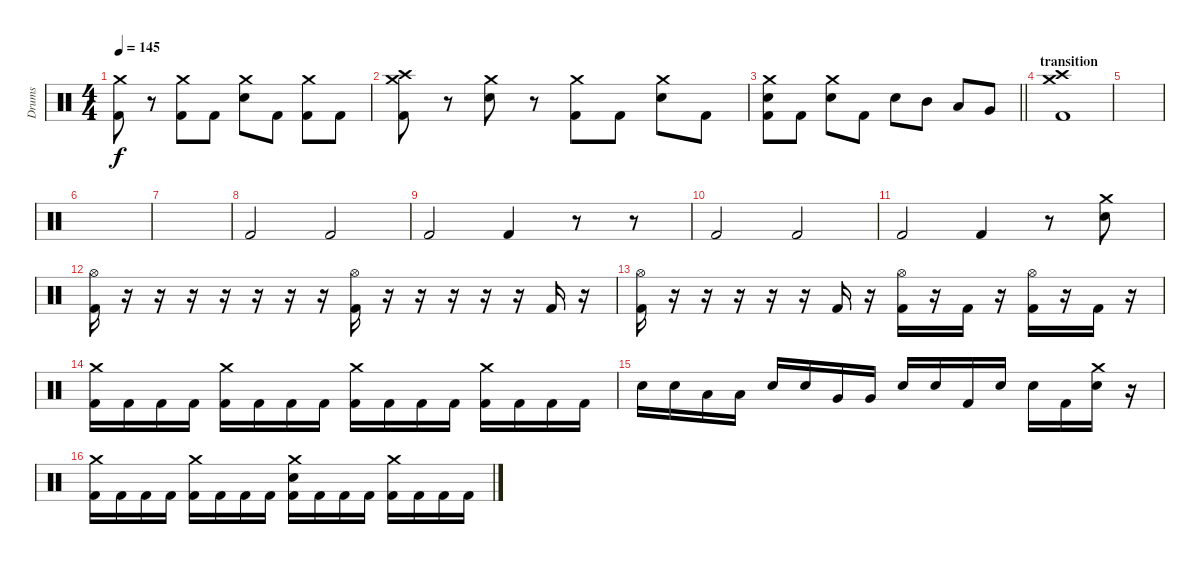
\track ("Drums" "Drums") {instrument percussion}
\staff {score}
\articulation defaults
\ts (4 4)
\tempo 145
\clef neutral
\ks c
("Crash medium (hit)" "Kick (hit) 2").8{dy f} r.8 ("Crash medium (hit)" "Kick (hit) 2").8 "Kick (hit) 2".8 ("Crash medium (hit)" "Snare (hit) 2").8 "Kick (hit) 2".8 ("Crash medium (hit)" "Kick (hit) 2").8 "Kick (hit) 2".8 |
("Crash high (hit)" "Crash medium (hit)" "Kick (hit) 2").8 r.8 ("Crash medium (hit)" "Snare (hit) 2").8 r.8 ("Crash medium (hit)" "Kick (hit) 2").8 "Kick (hit) 2".8 ("Crash medium (hit)" "Snare (hit) 2").8 "Kick (hit) 2".8 |
\barLineRight lightlight
("Crash medium (hit)" "Snare (hit) 2" "Kick (hit) 2").8 "Kick (hit) 2".8 ("Crash medium (hit)" "Snare (hit) 2").8 "Kick (hit) 2".8 "Snare (hit) 2".8 "Mid Tom (hit)".8 "Low Tom (hit)".8 "Very Low Tom (hit)".8 |
\section ("" "transition")
("Crash medium (hit)" "Crash high (hit)" "Kick (hit) 2").1 |
|
|
|
"Kick (hit) 2".2 "Kick (hit) 2".2 |
"Kick (hit) 2".2 "Kick (hit) 2".4 r.8 r.8 |
"Kick (hit) 2".2 "Kick (hit) 2".2 |
"Kick (hit) 2".2 "Kick (hit) 2".4 r.8 ("Crash medium (hit)" "Snare (hit) 2").8 |
("Hi-Hat (open)" "Kick (hit) 2").16 r.16 r.16 r.16 r.16 r.16 r.16 r.16 ("Hi-Hat (open)" "Kick (hit) 2").16 r.16 r.16 r.16 r.16 r.16 "Kick (hit) 2".16 r.16 |
("Hi-Hat (open)" "Kick (hit) 2").16 r.16 r.16 r.16 r.16 r.16 "Kick (hit) 2".16 r.16 ("Hi-Hat (open)" "Kick (hit) 2").16 r.16 "Kick (hit) 2".16 r.16 ("Hi-Hat (open)" "Kick (hit) 2").16 r.16 "Kick (hit) 2".16 r.16 |
("Crash medium (hit)" "Kick (hit) 2").16 "Kick (hit) 2".16 "Kick (hit) 2".16 "Kick (hit) 2".16 ("Crash medium (hit)" "Kick (hit) 2").16 "Kick (hit) 2".16 "Kick (hit) 2".16 "Kick (hit) 2".16 ("Crash medium (hit)" "Kick (hit) 2").16 "Kick (hit) 2".16 "Kick (hit) 2".16 "Kick (hit) 2".16 ("Crash medium (hit)" "Kick (hit) 2").16 "Kick (hit) 2".16 "Kick (hit) 2".16 "Kick (hit) 2".16 |
"Snare (hit) 2".16 "Snare (hit) 2".16 "Low Tom (hit)".16 "Low Tom (hit)".16 "Snare (hit) 2".16 "Snare (hit) 2".16 "Very Low Tom (hit)".16 "Very Low Tom (hit)".16 "Snare (hit) 2".16 "Snare (hit) 2".16 "Kick (hit) 2".16 "Snare (hit) 2".16 "Snare (hit) 2".16 "Kick (hit) 2".16 ("Crash medium (hit)" "Snare (hit) 2").16 r.16 |
("Crash medium (hit)" "Kick (hit) 2").16 "Kick (hit) 2".16 "Kick (hit) 2".16 "Kick (hit) 2".16 ("Crash medium (hit)" "Kick (hit) 2").16 "Kick (hit) 2".16 "Kick (hit) 2".16 "Kick (hit) 2".16 ("Crash medium (hit)" "Snare (hit) 2" "Kick (hit) 2").16 "Kick (hit) 2".16 "Kick (hit) 2".16 "Kick (hit) 2".16 ("Crash medium (hit)" "Kick (hit) 2").16 "Kick (hit) 2".16 "Kick (hit) 2".16 "Kick (hit) 2".16
